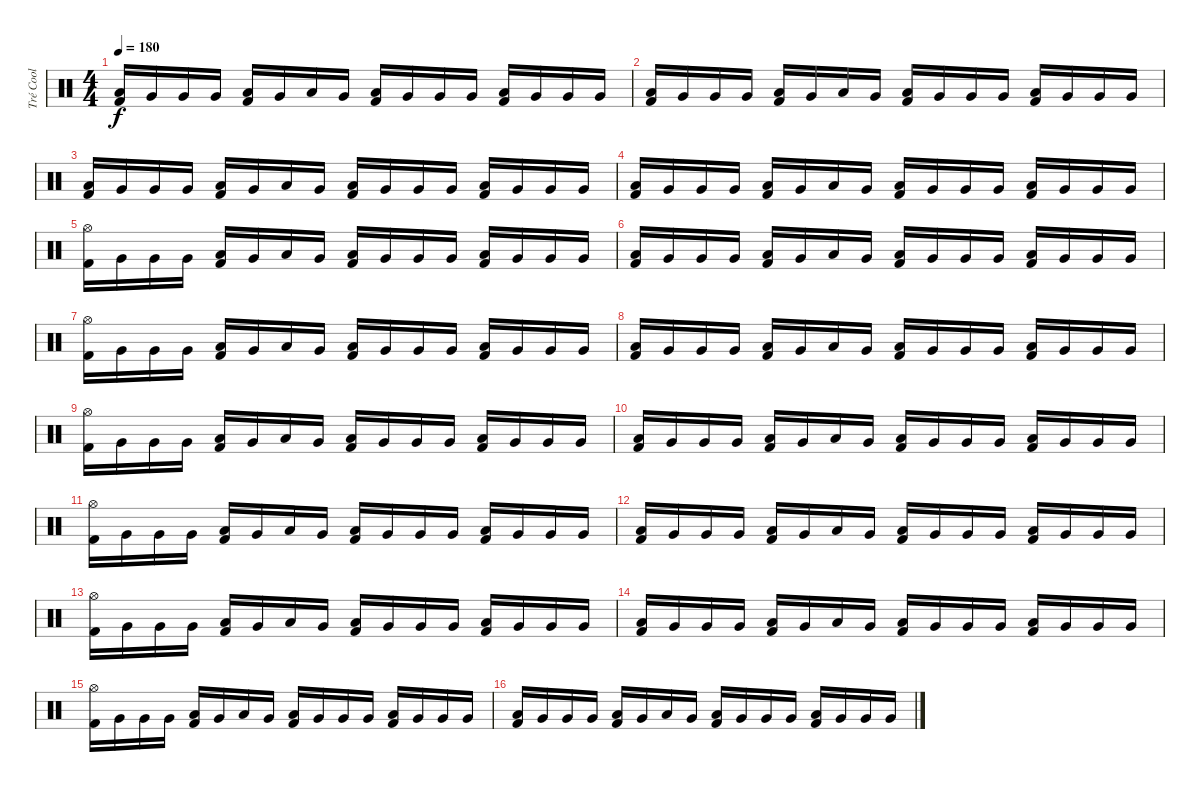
\track ("Tré Cool" "Tré Cool") {instrument percussion}
\staff {score}
\articulation defaults
\ts (4 4)
\tempo 180
\clef neutral
\ks c
("Low Tom (hit)" "Kick (hit) 2").16{dy f} "Very Low Tom (hit)".16 "Very Low Tom (hit)".16 "Very Low Tom (hit)".16 ("Low Tom (hit)" "Kick (hit) 2").16 "Very Low Tom (hit)".16 "Low Tom (hit)".16 "Very Low Tom (hit)".16 ("Low Tom (hit)" "Kick (hit) 2").16 "Very Low Tom (hit)".16 "Very Low Tom (hit)".16 "Very Low Tom (hit)".16 ("Low Tom (hit)" "Kick (hit) 2").16 "Very Low Tom (hit)".16 "Very Low Tom (hit)".16 "Very Low Tom (hit)".16 |
("Low Tom (hit)" "Kick (hit) 2").16 "Very Low Tom (hit)".16 "Very Low Tom (hit)".16 "Very Low Tom (hit)".16 ("Low Tom (hit)" "Kick (hit) 2").16 "Very Low Tom (hit)".16 "Low Tom (hit)".16 "Very Low Tom (hit)".16 ("Low Tom (hit)" "Kick (hit) 2").16 "Very Low Tom (hit)".16 "Very Low Tom (hit)".16 "Very Low Tom (hit)".16 ("Low Tom (hit)" "Kick (hit) 2").16 "Very Low Tom (hit)".16 "Very Low Tom (hit)".16 "Very Low Tom (hit)".16 |
("Low Tom (hit)" "Kick (hit) 2").16 "Very Low Tom (hit)".16 "Very Low Tom (hit)".16 "Very Low Tom (hit)".16 ("Low Tom (hit)" "Kick (hit) 2").16 "Very Low Tom (hit)".16 "Low Tom (hit)".16 "Very Low Tom (hit)".16 ("Low Tom (hit)" "Kick (hit) 2").16 "Very Low Tom (hit)".16 "Very Low Tom (hit)".16 "Very Low Tom (hit)".16 ("Low Tom (hit)" "Kick (hit) 2").16 "Very Low Tom (hit)".16 "Very Low Tom (hit)".16 "Very Low Tom (hit)".16 |
("Low Tom (hit)" "Kick (hit) 2").16 "Very Low Tom (hit)".16 "Very Low Tom (hit)".16 "Very Low Tom (hit)".16 ("Low Tom (hit)" "Kick (hit) 2").16 "Very Low Tom (hit)".16 "Low Tom (hit)".16 "Very Low Tom (hit)".16 ("Low Tom (hit)" "Kick (hit) 2").16 "Very Low Tom (hit)".16 "Very Low Tom (hit)".16 "Very Low Tom (hit)".16 ("Low Tom (hit)" "Kick (hit) 2").16 "Very Low Tom (hit)".16 "Very Low Tom (hit)".16 "Very Low Tom (hit)".16 |
("Hi-Hat (open)" "Kick (hit) 2").16 "Very Low Tom (hit)".16 "Very Low Tom (hit)".16 "Very Low Tom (hit)".16 ("Low Tom (hit)" "Kick (hit) 2").16 "Very Low Tom (hit)".16 "Low Tom (hit)".16 "Very Low Tom (hit)".16 ("Low Tom (hit)" "Kick (hit) 2").16 "Very Low Tom (hit)".16 "Very Low Tom (hit)".16 "Very Low Tom (hit)".16 ("Low Tom (hit)" "Kick (hit) 2").16 "Very Low Tom (hit)".16 "Very Low Tom (hit)".16 "Very Low Tom (hit)".16 |
("Low Tom (hit)" "Kick (hit) 2").16 "Very Low Tom (hit)".16 "Very Low Tom (hit)".16 "Very Low Tom (hit)".16 ("Low Tom (hit)" "Kick (hit) 2").16 "Very Low Tom (hit)".16 "Low Tom (hit)".16 "Very Low Tom (hit)".16 ("Low Tom (hit)" "Kick (hit) 2").16 "Very Low Tom (hit)".16 "Very Low Tom (hit)".16 "Very Low Tom (hit)".16 ("Low Tom (hit)" "Kick (hit) 2").16 "Very Low Tom (hit)".16 "Very Low Tom (hit)".16 "Very Low Tom (hit)".16 |
("Hi-Hat (open)" "Kick (hit) 2").16 "Very Low Tom (hit)".16 "Very Low Tom (hit)".16 "Very Low Tom (hit)".16 ("Low Tom (hit)" "Kick (hit) 2").16 "Very Low Tom (hit)".16 "Low Tom (hit)".16 "Very Low Tom (hit)".16 ("Low Tom (hit)" "Kick (hit) 2").16 "Very Low Tom (hit)".16 "Very Low Tom (hit)".16 "Very Low Tom (hit)".16 ("Low Tom (hit)" "Kick (hit) 2").16 "Very Low Tom (hit)".16 "Very Low Tom (hit)".16 "Very Low Tom (hit)".16 |
("Low Tom (hit)" "Kick (hit) 2").16 "Very Low Tom (hit)".16 "Very Low Tom (hit)".16 "Very Low Tom (hit)".16 ("Low Tom (hit)" "Kick (hit) 2").16 "Very Low Tom (hit)".16 "Low Tom (hit)".16 "Very Low Tom (hit)".16 ("Low Tom (hit)" "Kick (hit) 2").16 "Very Low Tom (hit)".16 "Very Low Tom (hit)".16 "Very Low Tom (hit)".16 ("Low Tom (hit)" "Kick (hit) 2").16 "Very Low Tom (hit)".16 "Very Low Tom (hit)".16 "Very Low Tom (hit)".16 |
("Hi-Hat (open)" "Kick (hit) 2").16 "Very Low Tom (hit)".16 "Very Low Tom (hit)".16 "Very Low Tom (hit)".16 ("Low Tom (hit)" "Kick (hit) 2").16 "Very Low Tom (hit)".16 "Low Tom (hit)".16 "Very Low Tom (hit)".16 ("Low Tom (hit)" "Kick (hit) 2").16 "Very Low Tom (hit)".16 "Very Low Tom (hit)".16 "Very Low Tom (hit)".16 ("Low Tom (hit)" "Kick (hit) 2").16 "Very Low Tom (hit)".16 "Very Low Tom (hit)".16 "Very Low Tom (hit)".16 |
("Low Tom (hit)" "Kick (hit) 2").16 "Very Low Tom (hit)".16 "Very Low Tom (hit)".16 "Very Low Tom (hit)".16 ("Low Tom (hit)" "Kick (hit) 2").16 "Very Low Tom (hit)".16 "Low Tom (hit)".16 "Very Low Tom (hit)".16 ("Low Tom (hit)" "Kick (hit) 2").16 "Very Low Tom (hit)".16 "Very Low Tom (hit)".16 "Very Low Tom (hit)".16 ("Low Tom (hit)" "Kick (hit) 2").16 "Very Low Tom (hit)".16 "Very Low Tom (hit)".16 "Very Low Tom (hit)".16 |
("Hi-Hat (open)" "Kick (hit) 2").16 "Very Low Tom (hit)".16 "Very Low Tom (hit)".16 "Very Low Tom (hit)".16 ("Low Tom (hit)" "Kick (hit) 2").16 "Very Low Tom (hit)".16 "Low Tom (hit)".16 "Very Low Tom (hit)".16 ("Low Tom (hit)" "Kick (hit) 2").16 "Very Low Tom (hit)".16 "Very Low Tom (hit)".16 "Very Low Tom (hit)".16 ("Low Tom (hit)" "Kick (hit) 2").16 "Very Low Tom (hit)".16 "Very Low Tom (hit)".16 "Very Low Tom (hit)".16 |
("Low Tom (hit)" "Kick (hit) 2").16 "Very Low Tom (hit)".16 "Very Low Tom (hit)".16 "Very Low Tom (hit)".16 ("Low Tom (hit)" "Kick (hit) 2").16 "Very Low Tom (hit)".16 "Low Tom (hit)".16 "Very Low Tom (hit)".16 ("Low Tom (hit)" "Kick (hit) 2").16 "Very Low Tom (hit)".16 "Very Low Tom (hit)".16 "Very Low Tom (hit)".16 ("Low Tom (hit)" "Kick (hit) 2").16 "Very Low Tom (hit)".16 "Very Low Tom (hit)".16 "Very Low Tom (hit)".16 |
("Hi-Hat (open)" "Kick (hit) 2").16 "Very Low Tom (hit)".16 "Very Low Tom (hit)".16 "Very Low Tom (hit)".16 ("Low Tom (hit)" "Kick (hit) 2").16 "Very Low Tom (hit)".16 "Low Tom (hit)".16 "Very Low Tom (hit)".16 ("Low Tom (hit)" "Kick (hit) 2").16 "Very Low Tom (hit)".16 "Very Low Tom (hit)".16 "Very Low Tom (hit)".16 ("Low Tom (hit)" "Kick (hit) 2").16 "Very Low Tom (hit)".16 "Very Low Tom (hit)".16 "Very Low Tom (hit)".16 |
("Low Tom (hit)" "Kick (hit) 2").16 "Very Low Tom (hit)".16 "Very Low Tom (hit)".16 "Very Low Tom (hit)".16 ("Low Tom (hit)" "Kick (hit) 2").16 "Very Low Tom (hit)".16 "Low Tom (hit)".16 "Very Low Tom (hit)".16 ("Low Tom (hit)" "Kick (hit) 2").16 "Very Low Tom (hit)".16 "Very Low Tom (hit)".16 "Very Low Tom (hit)".16 ("Low Tom (hit)" "Kick (hit) 2").16 "Very Low Tom (hit)".16 "Very Low Tom (hit)".16 "Very Low Tom (hit)".16 |
("Hi-Hat (open)" "Kick (hit) 2").16 "Very Low Tom (hit)".16 "Very Low Tom (hit)".16 "Very Low Tom (hit)".16 ("Low Tom (hit)" "Kick (hit) 2").16 "Very Low Tom (hit)".16 "Low Tom (hit)".16 "Very Low Tom (hit)".16 ("Low Tom (hit)" "Kick (hit) 2").16 "Very Low Tom (hit)".16 "Very Low Tom (hit)".16 "Very Low Tom (hit)".16 ("Low Tom (hit)" "Kick (hit) 2").16 "Very Low Tom (hit)".16 "Very Low Tom (hit)".16 "Very Low Tom (hit)".16 |
("Low Tom (hit)" "Kick (hit) 2").16 "Very Low Tom (hit)".16 "Very Low Tom (hit)".16 "Very Low Tom (hit)".16 ("Low Tom (hit)" "Kick (hit) 2").16 "Very Low Tom (hit)".16 "Low Tom (hit)".16 "Very Low Tom (hit)".16 ("Low Tom (hit)" "Kick (hit) 2").16 "Very Low Tom (hit)".16 "Very Low Tom (hit)".16 "Very Low Tom (hit)".16 ("Low Tom (hit)" "Kick (hit) 2").16 "Very Low Tom (hit)".16 "Very Low Tom (hit)".16 "Very Low Tom (hit)".16
